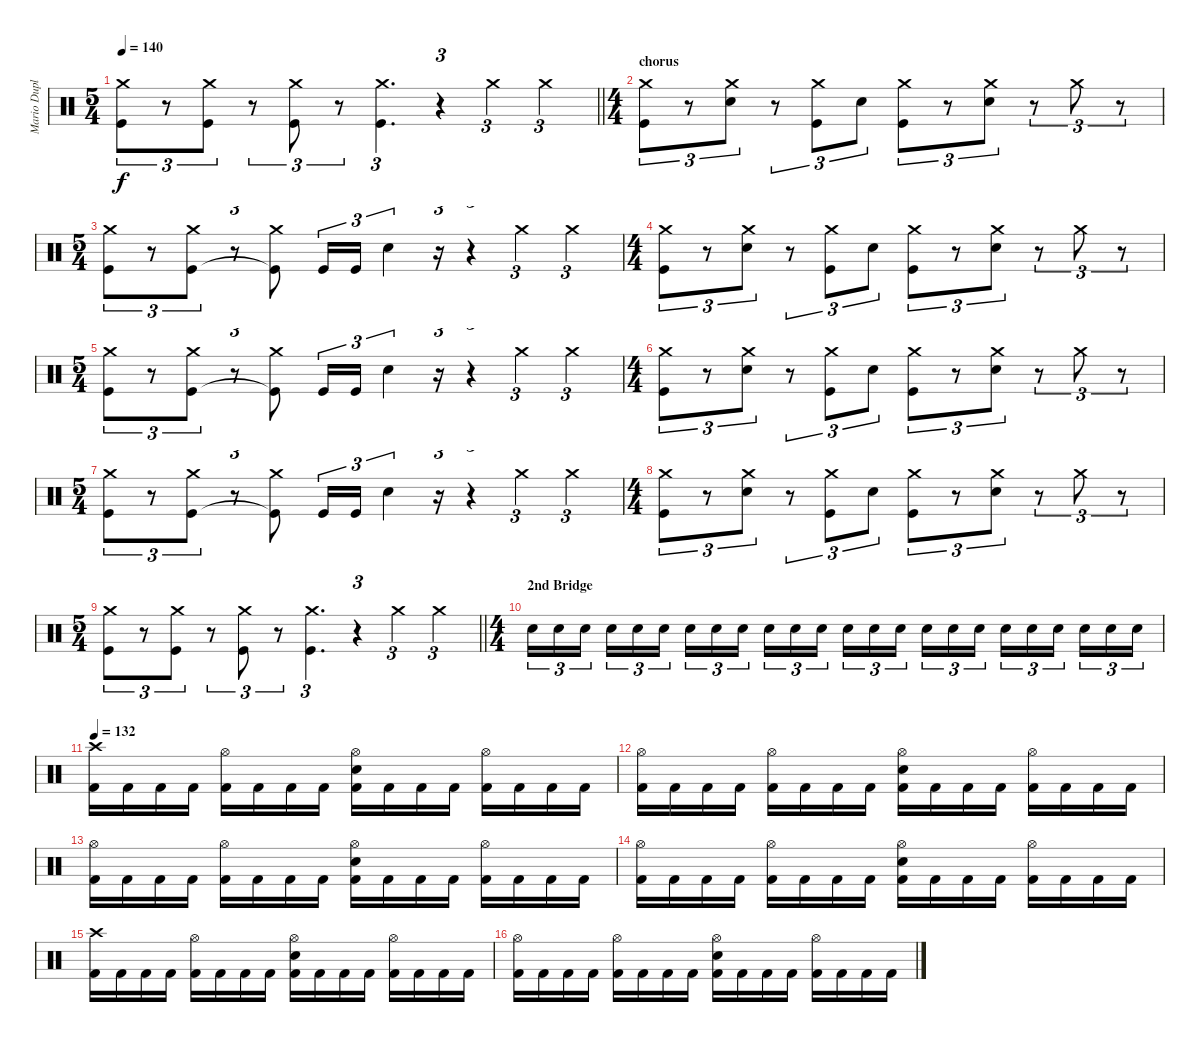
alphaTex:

\track ("Mario Duplantier" "Mario Dupl") {instrument percussion}
\staff {score}
\articulation defaults
\ts (5 4)
\tempo 140
\clef neutral
\barLineRight lightlight
\ks c
("Crash medium (hit)" "Kick (hit)").8{tu (3 2) dy f} r.8{tu (3 2)} ("Crash medium (hit)" "Kick (hit)").8{tu (3 2)} r.8{tu (3 2)} ("Crash medium (hit)" "Kick (hit)").8{tu (3 2)} r.8{tu (3 2)} ("Crash medium (hit)" "Kick (hit)").4{d tu (3 2)} r.4{tu (3 2)} "Crash medium (hit)".4{tu (3 2)} "Crash medium (hit)".4{tu (3 2)} |
\ts (4 4)
\section ("" "chorus")
("Crash medium (hit)" "Kick (hit)").8{tu (3 2)} r.8{tu (3 2)} ("Crash medium (hit)" "Electric Snare (hit)").8{tu (3 2)} r.8{tu (3 2)} ("Crash medium (hit)" "Kick (hit)").8{tu (3 2)} "Electric Snare (hit)".8{tu (3 2)} ("Crash medium (hit)" "Kick (hit)").8{tu (3 2)} r.8{tu (3 2)} ("Crash medium (hit)" "Electric Snare (hit)").8{tu (3 2)} r.8{tu (3 2)} "Crash medium (hit)".8{tu (3 2)} r.8{tu (3 2)} |
\ts (5 4)
("Crash medium (hit)" "Kick (hit)").8{tu (3 2)} r.8{tu (3 2)} ("Crash medium (hit)" "Kick (hit)").8{tu (3 2)} r.8{tu (3 2)} ("Crash medium (hit)" "Kick (hit)"{t}).8 "Kick (hit)".16{tu (3 2)} "Kick (hit)".16{tu (3 2)} "Electric Snare (hit)".4{tu (3 2)} r.16{tu (3 2)} r.4{tu (3 2)} "Crash medium (hit)".4{tu (3 2)} "Crash medium (hit)".4{tu (3 2)} |
\ts (4 4)
("Crash medium (hit)" "Kick (hit)").8{tu (3 2)} r.8{tu (3 2)} ("Crash medium (hit)" "Electric Snare (hit)").8{tu (3 2)} r.8{tu (3 2)} ("Crash medium (hit)" "Kick (hit)").8{tu (3 2)} "Electric Snare (hit)".8{tu (3 2)} ("Crash medium (hit)" "Kick (hit)").8{tu (3 2)} r.8{tu (3 2)} ("Crash medium (hit)" "Electric Snare (hit)").8{tu (3 2)} r.8{tu (3 2)} "Crash medium (hit)".8{tu (3 2)} r.8{tu (3 2)} |
\ts (5 4)
("Crash medium (hit)" "Kick (hit)").8{tu (3 2)} r.8{tu (3 2)} ("Crash medium (hit)" "Kick (hit)").8{tu (3 2)} r.8{tu (3 2)} ("Crash medium (hit)" "Kick (hit)"{t}).8 "Kick (hit)".16{tu (3 2)} "Kick (hit)".16{tu (3 2)} "Electric Snare (hit)".4{tu (3 2)} r.16{tu (3 2)} r.4{tu (3 2)} "Crash medium (hit)".4{tu (3 2)} "Crash medium (hit)".4{tu (3 2)} |
\ts (4 4)
("Crash medium (hit)" "Kick (hit)").8{tu (3 2)} r.8{tu (3 2)} ("Crash medium (hit)" "Electric Snare (hit)").8{tu (3 2)} r.8{tu (3 2)} ("Crash medium (hit)" "Kick (hit)").8{tu (3 2)} "Electric Snare (hit)".8{tu (3 2)} ("Crash medium (hit)" "Kick (hit)").8{tu (3 2)} r.8{tu (3 2)} ("Crash medium (hit)" "Electric Snare (hit)").8{tu (3 2)} r.8{tu (3 2)} "Crash medium (hit)".8{tu (3 2)} r.8{tu (3 2)} |
\ts (5 4)
("Crash medium (hit)" "Kick (hit)").8{tu (3 2)} r.8{tu (3 2)} ("Crash medium (hit)" "Kick (hit)").8{tu (3 2)} r.8{tu (3 2)} ("Crash medium (hit)" "Kick (hit)"{t}).8 "Kick (hit)".16{tu (3 2)} "Kick (hit)".16{tu (3 2)} "Electric Snare (hit)".4{tu (3 2)} r.16{tu (3 2)} r.4{tu (3 2)} "Crash medium (hit)".4{tu (3 2)} "Crash medium (hit)".4{tu (3 2)} |
\ts (4 4)
("Crash medium (hit)" "Kick (hit)").8{tu (3 2)} r.8{tu (3 2)} ("Crash medium (hit)" "Electric Snare (hit)").8{tu (3 2)} r.8{tu (3 2)} ("Crash medium (hit)" "Kick (hit)").8{tu (3 2)} "Electric Snare (hit)".8{tu (3 2)} ("Crash medium (hit)" "Kick (hit)").8{tu (3 2)} r.8{tu (3 2)} ("Crash medium (hit)" "Electric Snare (hit)").8{tu (3 2)} r.8{tu (3 2)} "Crash medium (hit)".8{tu (3 2)} r.8{tu (3 2)} |
\ts (5 4)
\barLineRight lightlight
("Crash medium (hit)" "Kick (hit)").8{tu (3 2)} r.8{tu (3 2)} ("Crash medium (hit)" "Kick (hit)").8{tu (3 2)} r.8{tu (3 2)} ("Crash medium (hit)" "Kick (hit)").8{tu (3 2)} r.8{tu (3 2)} ("Crash medium (hit)" "Kick (hit)").4{d tu (3 2)} r.4{tu (3 2)} "Crash medium (hit)".4{tu (3 2)} "Crash medium (hit)".4{tu (3 2)} |
\ts (4 4)
\section ("" "2nd Bridge")
"Snare (hit) 2".16{tu (3 2)} "Snare (hit) 2".16{tu (3 2)} "Snare (hit) 2".16{tu (3 2) beam splitsecondary} "Snare (hit) 2".16{tu (3 2)} "Snare (hit) 2".16{tu (3 2)} "Snare (hit) 2".16{tu (3 2)} "Snare (hit) 2".16{tu (3 2)} "Snare (hit) 2".16{tu (3 2)} "Snare (hit) 2".16{tu (3 2) beam splitsecondary} "Snare (hit) 2".16{tu (3 2)} "Snare (hit) 2".16{tu (3 2)} "Snare (hit) 2".16{tu (3 2)} "Snare (hit) 2".16{tu (3 2)} "Snare (hit) 2".16{tu (3 2)} "Snare (hit) 2".16{tu (3 2) beam splitsecondary} "Snare (hit) 2".16{tu (3 2)} "Snare (hit) 2".16{tu (3 2)} "Snare (hit) 2".16{tu (3 2)} "Snare (hit) 2".16{tu (3 2)} "Snare (hit) 2".16{tu (3 2)} "Snare (hit) 2".16{tu (3 2) beam splitsecondary} "Snare (hit) 2".16{tu (3 2)} "Snare (hit) 2".16{tu (3 2)} "Snare (hit) 2".16{tu (3 2)} |
\tempo 132
("Crash high (hit)" "Kick (hit) 2").16 "Kick (hit) 2".16 "Kick (hit) 2".16 "Kick (hit) 2".16 ("Hi-Hat (open)" "Kick (hit) 2").16 "Kick (hit) 2".16 "Kick (hit) 2".16 "Kick (hit) 2".16 ("Hi-Hat (open)" "Snare (hit) 2" "Kick (hit) 2").16 "Kick (hit) 2".16 "Kick (hit) 2".16 "Kick (hit) 2".16 ("Hi-Hat (open)" "Kick (hit) 2").16 "Kick (hit) 2".16 "Kick (hit) 2".16 "Kick (hit) 2".16 |
("Hi-Hat (open)" "Kick (hit) 2").16 "Kick (hit) 2".16 "Kick (hit) 2".16 "Kick (hit) 2".16 ("Hi-Hat (open)" "Kick (hit) 2").16 "Kick (hit) 2".16 "Kick (hit) 2".16 "Kick (hit) 2".16 ("Hi-Hat (open)" "Electric Snare (hit)" "Kick (hit) 2").16 "Kick (hit) 2".16 "Kick (hit) 2".16 "Kick (hit) 2".16 ("Hi-Hat (open)" "Kick (hit) 2").16 "Kick (hit) 2".16 "Kick (hit) 2".16 "Kick (hit) 2".16 |
("Hi-Hat (open)" "Kick (hit) 2").16 "Kick (hit) 2".16 "Kick (hit) 2".16 "Kick (hit) 2".16 ("Hi-Hat (open)" "Kick (hit) 2").16 "Kick (hit) 2".16 "Kick (hit) 2".16 "Kick (hit) 2".16 ("Hi-Hat (open)" "Snare (hit) 2" "Kick (hit) 2").16 "Kick (hit) 2".16 "Kick (hit) 2".16 "Kick (hit) 2".16 ("Hi-Hat (open)" "Kick (hit) 2").16 "Kick (hit) 2".16 "Kick (hit) 2".16 "Kick (hit) 2".16 |
("Hi-Hat (open)" "Kick (hit) 2").16 "Kick (hit) 2".16 "Kick (hit) 2".16 "Kick (hit) 2".16 ("Hi-Hat (open)" "Kick (hit) 2").16 "Kick (hit) 2".16 "Kick (hit) 2".16 "Kick (hit) 2".16 ("Hi-Hat (open)" "Electric Snare (hit)" "Kick (hit) 2").16 "Kick (hit) 2".16 "Kick (hit) 2".16 "Kick (hit) 2".16 ("Hi-Hat (open)" "Kick (hit) 2").16 "Kick (hit) 2".16 "Kick (hit) 2".16 "Kick (hit) 2".16 |
("Crash high (hit)" "Kick (hit) 2").16 "Kick (hit) 2".16 "Kick (hit) 2".16 "Kick (hit) 2".16 ("Hi-Hat (open)" "Kick (hit) 2").16 "Kick (hit) 2".16 "Kick (hit) 2".16 "Kick (hit) 2".16 ("Hi-Hat (open)" "Snare (hit) 2" "Kick (hit) 2").16 "Kick (hit) 2".16 "Kick (hit) 2".16 "Kick (hit) 2".16 ("Hi-Hat (open)" "Kick (hit) 2").16 "Kick (hit) 2".16 "Kick (hit) 2".16 "Kick (hit) 2".16 |
("Hi-Hat (open)" "Kick (hit) 2").16 "Kick (hit) 2".16 "Kick (hit) 2".16 "Kick (hit) 2".16 ("Hi-Hat (open)" "Kick (hit) 2").16 "Kick (hit) 2".16 "Kick (hit) 2".16 "Kick (hit) 2".16 ("Hi-Hat (open)" "Electric Snare (hit)" "Kick (hit) 2").16 "Kick (hit) 2".16 "Kick (hit) 2".16 "Kick (hit) 2".16 ("Hi-Hat (open)" "Kick (hit) 2").16 "Kick (hit) 2".16 "Kick (hit) 2".16 "Kick (hit) 2".16
